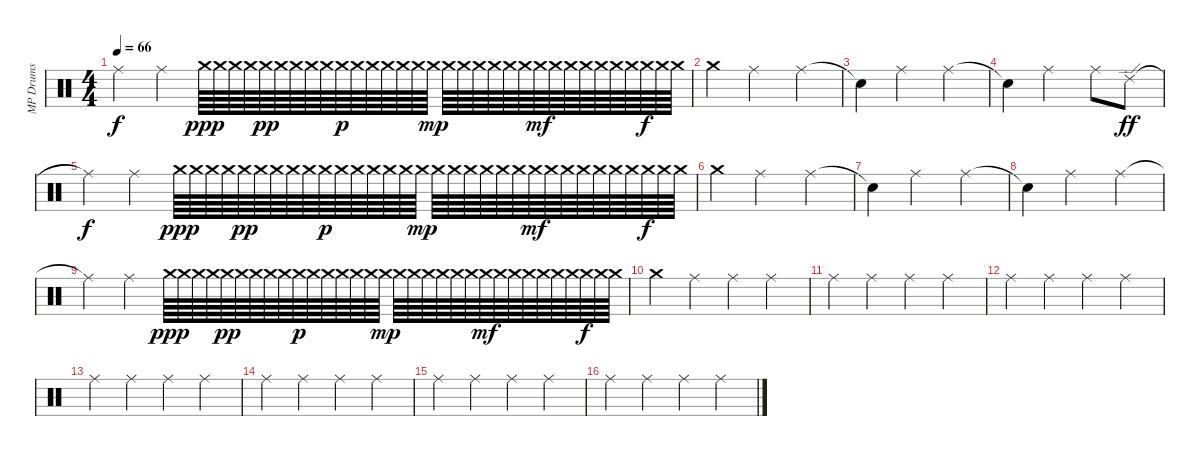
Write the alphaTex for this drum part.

\track ("MP Drums" "MP Drums") {instrument percussion}
\staff {score}
\articulation defaults
\ts (4 4)
\tempo 66
\clef neutral
\ks c "Ride (middle)"{t}.4{dy f} "Ride (middle)".4 "Crash medium (hit)".64{dy ppp} "Crash medium (hit)".64 "Crash medium (hit)".64 "Crash medium (hit)".64 "Crash medium (hit)".64{dy pp} "Crash medium (hit)".64 "Crash medium (hit)".64 "Crash medium (hit)".64 "Crash medium (hit)".64 "Crash medium (hit)".64{dy p} "Crash medium (hit)".64 "Crash medium (hit)".64 "Crash medium (hit)".64 "Crash medium (hit)".64 "Crash medium (hit)".64 "Crash medium (hit)".64{dy mp} "Crash medium (hit)".64 "Crash medium (hit)".64 "Crash medium (hit)".64 "Crash medium (hit)".64 "Crash medium (hit)".64 "Crash medium (hit)".64 "Crash medium (hit)".64{dy mf} "Crash medium (hit)".64 "Crash medium (hit)".64 "Crash medium (hit)".64 "Crash medium (hit)".64 "Crash medium (hit)".64 "Crash medium (hit)".64 "Crash medium (hit)".64{dy f} "Crash medium (hit)".64 "Crash medium (hit)".64
|
"Crash medium (hit)".4 "Ride (middle)".2 "Ride (middle)".4 |
"Snare (hit)"{t}.4 "Ride (middle)".2 "Ride (middle)".4 |
"Snare (hit)"{t}.4 "Ride (middle)".2 "Ride (middle)".8 "Ride (edge) 2".8{dy ff} |
"Ride (middle)"{t}.4{dy f} "Ride (middle)".4 "Crash medium (hit)".64{dy ppp} "Crash medium (hit)".64 "Crash medium (hit)".64 "Crash medium (hit)".64 "Crash medium (hit)".64{dy pp} "Crash medium (hit)".64 "Crash medium (hit)".64 "Crash medium (hit)".64 "Crash medium (hit)".64 "Crash medium (hit)".64{dy p} "Crash medium (hit)".64 "Crash medium (hit)".64 "Crash medium (hit)".64 "Crash medium (hit)".64 "Crash medium (hit)".64 "Crash medium (hit)".64{dy mp} "Crash medium (hit)".64 "Crash medium (hit)".64 "Crash medium (hit)".64 "Crash medium (hit)".64 "Crash medium (hit)".64 "Crash medium (hit)".64 "Crash medium (hit)".64{dy mf} "Crash medium (hit)".64 "Crash medium (hit)".64 "Crash medium (hit)".64 "Crash medium (hit)".64 "Crash medium (hit)".64 "Crash medium (hit)".64 "Crash medium (hit)".64{dy f} "Crash medium (hit)".64 "Crash medium (hit)".64 |
"Crash medium (hit)".4 "Ride (middle)".2 "Ride (middle)".4 |
"Snare (hit)"{t}.4 "Ride (middle)".2 "Ride (middle)".4 |
"Snare (hit)"{t}.4 "Ride (middle)".2 "Ride (middle)".4 |
"Ride (middle)"{t}.4 "Ride (middle)".4 "Crash medium (hit)".64{dy ppp} "Crash medium (hit)".64 "Crash medium (hit)".64 "Crash medium (hit)".64 "Crash medium (hit)".64{dy pp} "Crash medium (hit)".64 "Crash medium (hit)".64 "Crash medium (hit)".64 "Crash medium (hit)".64 "Crash medium (hit)".64{dy p} "Crash medium (hit)".64 "Crash medium (hit)".64 "Crash medium (hit)".64 "Crash medium (hit)".64 "Crash medium (hit)".64 "Crash medium (hit)".64{dy mp} "Crash medium (hit)".64 "Crash medium (hit)".64 "Crash medium (hit)".64 "Crash medium (hit)".64 "Crash medium (hit)".64 "Crash medium (hit)".64 "Crash medium (hit)".64{dy mf} "Crash medium (hit)".64 "Crash medium (hit)".64 "Crash medium (hit)".64 "Crash medium (hit)".64 "Crash medium (hit)".64 "Crash medium (hit)".64 "Crash medium (hit)".64{dy f} "Crash medium (hit)".64 "Crash medium (hit)".64 |
"Crash medium (hit)".4 "Ride (middle)".4 "Ride (middle)".4 "Ride (middle)".4 |
"Ride (middle)".4 "Ride (middle)".4 "Ride (middle)".4 "Ride (middle)".4 |
"Ride (middle)".4 "Ride (middle)".4 "Ride (middle)".4 "Ride (middle)".4 |
"Ride (middle)".4 "Ride (middle)".4 "Ride (middle)".4 "Ride (middle)".4 |
"Ride (middle)".4 "Ride (middle)".4 "Ride (middle)".4 "Ride (middle)".4 |
"Ride (middle)".4 "Ride (middle)".4 "Ride (middle)".4 "Ride (middle)".4 |
"Ride (middle)".4 "Ride (middle)".4 "Ride (middle)".4 "Ride (middle)".4
